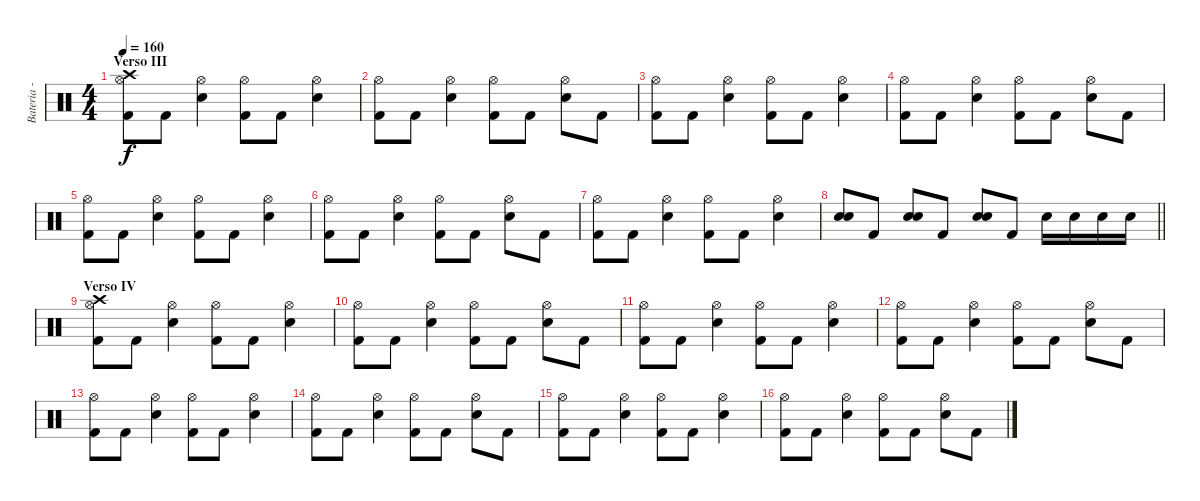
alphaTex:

\track ("Bateria - Larzon" "Bateria - ") {instrument percussion}
\staff {score}
\articulation defaults
\ts (4 4)
\section ("" "Verso III")
\tempo 160
\clef neutral
\ks c
("Kick (hit) 2" "Hi-Hat (open)" "Crash high (hit)").8{dy f} "Kick (hit) 2".8 ("Snare (hit) 2" "Hi-Hat (open)").4 ("Kick (hit) 2" "Hi-Hat (open)").8 "Kick (hit) 2".8 ("Snare (hit) 2" "Hi-Hat (open)").4 |
("Kick (hit) 2" "Hi-Hat (open)").8 "Kick (hit) 2".8 ("Snare (hit) 2" "Hi-Hat (open)").4 ("Kick (hit) 2" "Hi-Hat (open)").8 "Kick (hit) 2".8 ("Snare (hit) 2" "Hi-Hat (open)").8 "Kick (hit) 2".8 |
("Kick (hit) 2" "Hi-Hat (open)").8 "Kick (hit) 2".8 ("Snare (hit) 2" "Hi-Hat (open)").4 ("Kick (hit) 2" "Hi-Hat (open)").8 "Kick (hit) 2".8 ("Snare (hit) 2" "Hi-Hat (open)").4 |
("Kick (hit) 2" "Hi-Hat (open)").8 "Kick (hit) 2".8 ("Snare (hit) 2" "Hi-Hat (open)").4 ("Kick (hit) 2" "Hi-Hat (open)").8 "Kick (hit) 2".8 ("Snare (hit) 2" "Hi-Hat (open)").8 "Kick (hit) 2".8 |
("Kick (hit) 2" "Hi-Hat (open)").8 "Kick (hit) 2".8 ("Snare (hit) 2" "Hi-Hat (open)").4 ("Kick (hit) 2" "Hi-Hat (open)").8 "Kick (hit) 2".8 ("Snare (hit) 2" "Hi-Hat (open)").4 |
("Kick (hit) 2" "Hi-Hat (open)").8 "Kick (hit) 2".8 ("Snare (hit) 2" "Hi-Hat (open)").4 ("Kick (hit) 2" "Hi-Hat (open)").8 "Kick (hit) 2".8 ("Snare (hit) 2" "Hi-Hat (open)").8 "Kick (hit) 2".8 |
("Kick (hit) 2" "Hi-Hat (open)").8 "Kick (hit) 2".8 ("Snare (hit) 2" "Hi-Hat (open)").4 ("Kick (hit) 2" "Hi-Hat (open)").8 "Kick (hit) 2".8 ("Snare (hit) 2" "Hi-Hat (open)").4 |
\barLineRight lightlight
("Snare (hit) 2" "Snare (hit) 2").8 "Kick (hit) 2".8 ("Snare (hit) 2" "Snare (hit) 2").8 "Kick (hit) 2".8 ("Snare (hit) 2" "Snare (hit) 2").8 "Kick (hit) 2".8 "Snare (hit) 2".16 "Snare (hit) 2".16 "Snare (hit) 2".16 "Snare (hit) 2".16 |
\section ("" "Verso IV")
("Kick (hit) 2" "Hi-Hat (open)" "Crash high (hit)").8 "Kick (hit) 2".8 ("Snare (hit) 2" "Hi-Hat (open)").4 ("Kick (hit) 2" "Hi-Hat (open)").8 "Kick (hit) 2".8 ("Snare (hit) 2" "Hi-Hat (open)").4 |
("Kick (hit) 2" "Hi-Hat (open)").8 "Kick (hit) 2".8 ("Snare (hit) 2" "Hi-Hat (open)").4 ("Kick (hit) 2" "Hi-Hat (open)").8 "Kick (hit) 2".8 ("Snare (hit) 2" "Hi-Hat (open)").8 "Kick (hit) 2".8 |
("Kick (hit) 2" "Hi-Hat (open)").8 "Kick (hit) 2".8 ("Snare (hit) 2" "Hi-Hat (open)").4 ("Kick (hit) 2" "Hi-Hat (open)").8 "Kick (hit) 2".8 ("Snare (hit) 2" "Hi-Hat (open)").4 |
("Kick (hit) 2" "Hi-Hat (open)").8 "Kick (hit) 2".8 ("Snare (hit) 2" "Hi-Hat (open)").4 ("Kick (hit) 2" "Hi-Hat (open)").8 "Kick (hit) 2".8 ("Snare (hit) 2" "Hi-Hat (open)").8 "Kick (hit) 2".8 |
("Kick (hit) 2" "Hi-Hat (open)").8 "Kick (hit) 2".8 ("Snare (hit) 2" "Hi-Hat (open)").4 ("Kick (hit) 2" "Hi-Hat (open)").8 "Kick (hit) 2".8 ("Snare (hit) 2" "Hi-Hat (open)").4 |
("Kick (hit) 2" "Hi-Hat (open)").8 "Kick (hit) 2".8 ("Snare (hit) 2" "Hi-Hat (open)").4 ("Kick (hit) 2" "Hi-Hat (open)").8 "Kick (hit) 2".8 ("Snare (hit) 2" "Hi-Hat (open)").8 "Kick (hit) 2".8 |
("Kick (hit) 2" "Hi-Hat (open)").8 "Kick (hit) 2".8 ("Snare (hit) 2" "Hi-Hat (open)").4 ("Kick (hit) 2" "Hi-Hat (open)").8 "Kick (hit) 2".8 ("Snare (hit) 2" "Hi-Hat (open)").4 |
("Kick (hit) 2" "Hi-Hat (open)").8 "Kick (hit) 2".8 ("Snare (hit) 2" "Hi-Hat (open)").4 ("Kick (hit) 2" "Hi-Hat (open)").8 "Kick (hit) 2".8 ("Snare (hit) 2" "Hi-Hat (open)").8 "Kick (hit) 2".8
